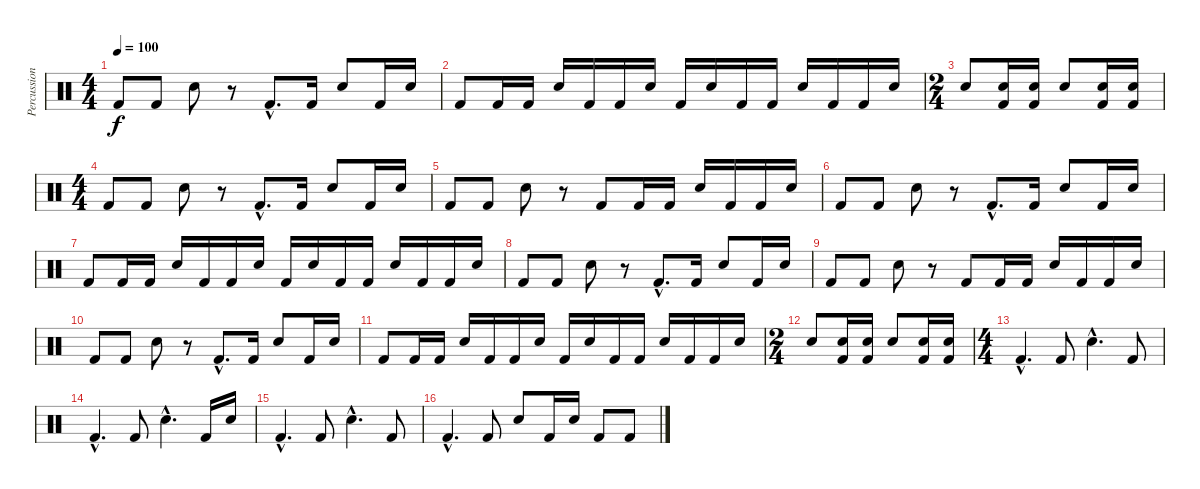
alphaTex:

\track ("Percussioni" "Percussion") {instrument percussion}
\staff {score}
\articulation defaults
\ts (4 4)
\tempo 100
\clef neutral
\ks c "Kick (hit) 2".8{dy f} "Kick (hit) 2".8 "Snare (hit) 2".8
r.8 "Kick (hit) 2"{hac}.8{d} "Kick (hit) 2".16 "Snare (hit) 2".8 "Kick (hit) 2".16 "Snare (hit) 2".16 |
"Kick (hit) 2".8 "Kick (hit) 2".16 "Kick (hit) 2".16 "Snare (hit) 2".16 "Kick (hit) 2".16 "Kick (hit) 2".16 "Snare (hit) 2".16 "Kick (hit) 2".16 "Snare (hit) 2".16 "Kick (hit) 2".16 "Kick (hit) 2".16 "Snare (hit) 2".16 "Kick (hit) 2".16 "Kick (hit) 2".16 "Snare (hit) 2".16 |
\ts (2 4)
"Snare (hit) 2".8 ("Snare (hit) 2" "Kick (hit) 2").16 ("Snare (hit) 2" "Kick (hit) 2").16 "Snare (hit) 2".8 ("Snare (hit) 2" "Kick (hit) 2").16 ("Snare (hit) 2" "Kick (hit) 2").16 |
\ts (4 4)
"Kick (hit) 2".8 "Kick (hit) 2".8 "Snare (hit) 2".8 r.8 "Kick (hit) 2"{hac}.8{d} "Kick (hit) 2".16 "Snare (hit) 2".8 "Kick (hit) 2".16 "Snare (hit) 2".16 |
"Kick (hit) 2".8 "Kick (hit) 2".8 "Snare (hit) 2".8 r.8 "Kick (hit) 2".8 "Kick (hit) 2".16 "Kick (hit) 2".16 "Snare (hit) 2".16 "Kick (hit) 2".16 "Kick (hit) 2".16 "Snare (hit) 2".16 |
"Kick (hit) 2".8 "Kick (hit) 2".8 "Snare (hit) 2".8 r.8 "Kick (hit) 2"{hac}.8{d} "Kick (hit) 2".16 "Snare (hit) 2".8 "Kick (hit) 2".16 "Snare (hit) 2".16 |
"Kick (hit) 2".8 "Kick (hit) 2".16 "Kick (hit) 2".16 "Snare (hit) 2".16 "Kick (hit) 2".16 "Kick (hit) 2".16 "Snare (hit) 2".16 "Kick (hit) 2".16 "Snare (hit) 2".16 "Kick (hit) 2".16 "Kick (hit) 2".16 "Snare (hit) 2".16 "Kick (hit) 2".16 "Kick (hit) 2".16 "Snare (hit) 2".16 |
"Kick (hit) 2".8 "Kick (hit) 2".8 "Snare (hit) 2".8 r.8 "Kick (hit) 2"{hac}.8{d} "Kick (hit) 2".16 "Snare (hit) 2".8 "Kick (hit) 2".16 "Snare (hit) 2".16 |
"Kick (hit) 2".8 "Kick (hit) 2".8 "Snare (hit) 2".8 r.8 "Kick (hit) 2".8 "Kick (hit) 2".16 "Kick (hit) 2".16 "Snare (hit) 2".16 "Kick (hit) 2".16 "Kick (hit) 2".16 "Snare (hit) 2".16 |
"Kick (hit) 2".8 "Kick (hit) 2".8 "Snare (hit) 2".8 r.8 "Kick (hit) 2"{hac}.8{d} "Kick (hit) 2".16 "Snare (hit) 2".8 "Kick (hit) 2".16 "Snare (hit) 2".16 |
"Kick (hit) 2".8 "Kick (hit) 2".16 "Kick (hit) 2".16 "Snare (hit) 2".16 "Kick (hit) 2".16 "Kick (hit) 2".16 "Snare (hit) 2".16 "Kick (hit) 2".16 "Snare (hit) 2".16 "Kick (hit) 2".16 "Kick (hit) 2".16 "Snare (hit) 2".16 "Kick (hit) 2".16 "Kick (hit) 2".16 "Snare (hit) 2".16 |
\ts (2 4)
"Snare (hit) 2".8 ("Snare (hit) 2" "Kick (hit) 2").16 ("Snare (hit) 2" "Kick (hit) 2").16 "Snare (hit) 2".8 ("Snare (hit) 2" "Kick (hit) 2").16 ("Snare (hit) 2" "Kick (hit) 2").16 |
\ts (4 4)
"Kick (hit) 2"{hac}.4{d} "Kick (hit) 2".8 "Snare (hit) 2"{hac}.4{d} "Kick (hit) 2".8 |
"Kick (hit) 2"{hac}.4{d} "Kick (hit) 2".8 "Snare (hit) 2"{hac}.4{d} "Kick (hit) 2".16 "Snare (hit) 2".16 |
"Kick (hit) 2"{hac}.4{d} "Kick (hit) 2".8 "Snare (hit) 2"{hac}.4{d} "Kick (hit) 2".8 |
"Kick (hit) 2"{hac}.4{d} "Kick (hit) 2".8 "Snare (hit) 2".8 "Kick (hit) 2".16 "Snare (hit) 2".16 "Kick (hit) 2".8 "Kick (hit) 2".8
